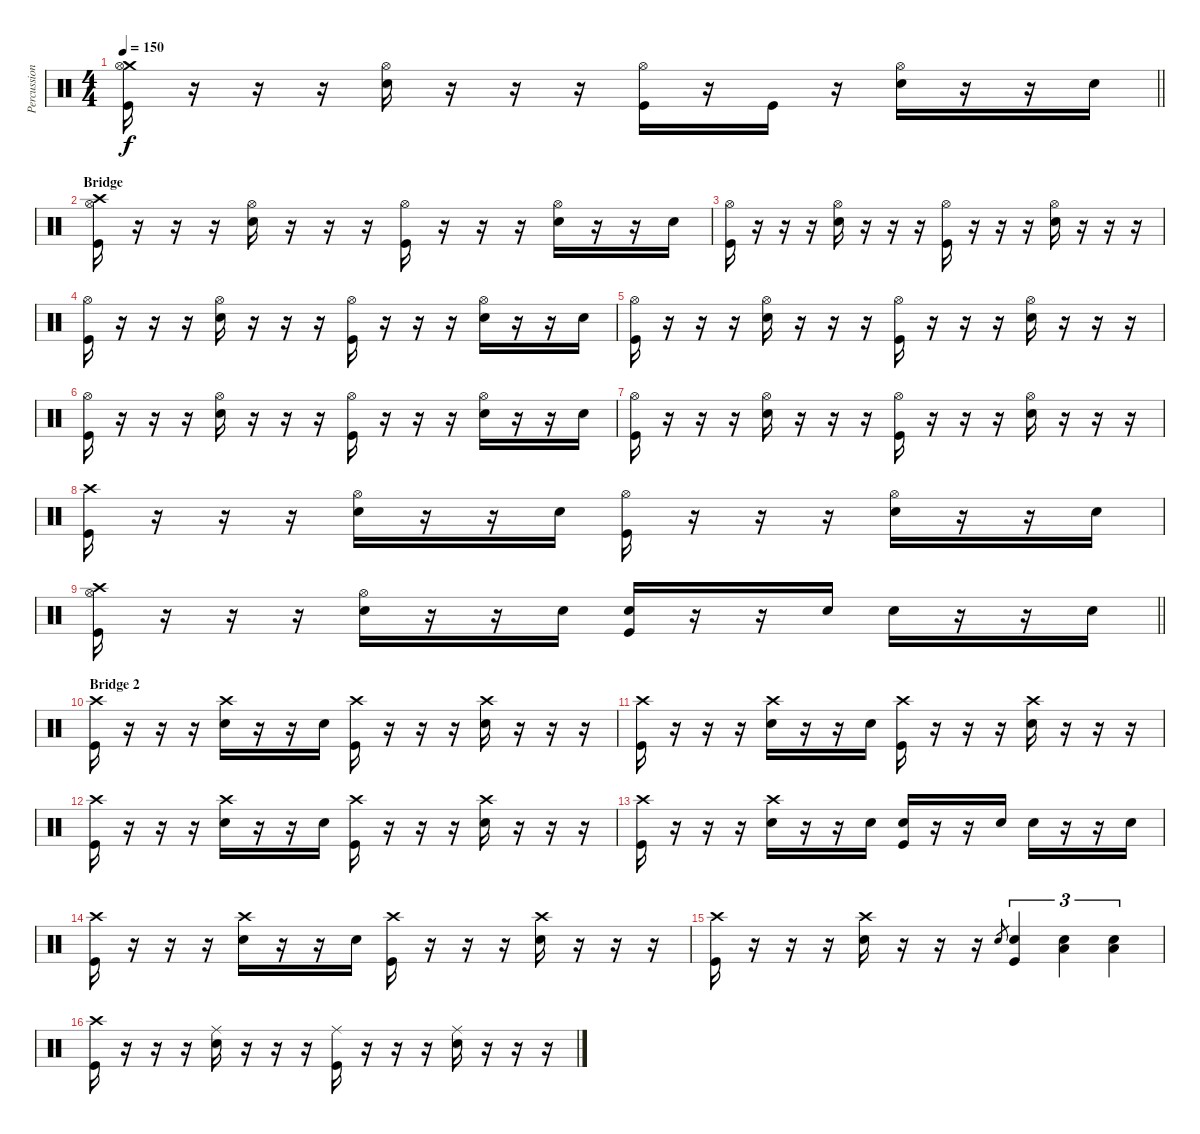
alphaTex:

\track ("Percussion" "Percussion") {instrument percussion}
\staff {score}
\articulation defaults
\ts (4 4)
\tempo 150
\clef neutral
\barLineRight lightlight
\ks c
("Crash medium (hit)" "Hi-Hat (open)" "Kick (hit)").16{dy f} r.16 r.16 r.16 ("Hi-Hat (open)" "Electric Snare (hit)").16 r.16 r.16 r.16 ("Hi-Hat (open)" "Kick (hit)").16 r.16 "Kick (hit)".16 r.16 ("Hi-Hat (open)" "Electric Snare (hit)").16 r.16 r.16 "Electric Snare (hit)".16 |
\section ("" "Bridge")
("Crash high (hit)" "Hi-Hat (open)" "Kick (hit)").16 r.16 r.16 r.16 ("Hi-Hat (open)" "Electric Snare (hit)").16 r.16 r.16 r.16 ("Hi-Hat (open)" "Kick (hit)").16 r.16 r.16 r.16 ("Hi-Hat (open)" "Electric Snare (hit)").16 r.16 r.16 "Electric Snare (hit)".16 |
("Hi-Hat (open)" "Kick (hit)").16 r.16 r.16 r.16 ("Hi-Hat (open)" "Electric Snare (hit)").16 r.16 r.16 r.16 ("Hi-Hat (open)" "Kick (hit)").16 r.16 r.16 r.16 ("Hi-Hat (open)" "Electric Snare (hit)").16 r.16 r.16 r.16 |
("Hi-Hat (open)" "Kick (hit)").16 r.16 r.16 r.16 ("Hi-Hat (open)" "Electric Snare (hit)").16 r.16 r.16 r.16 ("Hi-Hat (open)" "Kick (hit)").16 r.16 r.16 r.16 ("Hi-Hat (open)" "Electric Snare (hit)").16 r.16 r.16 "Electric Snare (hit)".16 |
("Hi-Hat (open)" "Kick (hit)").16 r.16 r.16 r.16 ("Hi-Hat (open)" "Electric Snare (hit)").16 r.16 r.16 r.16 ("Hi-Hat (open)" "Kick (hit)").16 r.16 r.16 r.16 ("Hi-Hat (open)" "Electric Snare (hit)").16 r.16 r.16 r.16 |
("Hi-Hat (open)" "Kick (hit)").16 r.16 r.16 r.16 ("Hi-Hat (open)" "Electric Snare (hit)").16 r.16 r.16 r.16 ("Hi-Hat (open)" "Kick (hit)").16 r.16 r.16 r.16 ("Hi-Hat (open)" "Electric Snare (hit)").16 r.16 r.16 "Electric Snare (hit)".16 |
("Hi-Hat (open)" "Kick (hit)").16 r.16 r.16 r.16 ("Hi-Hat (open)" "Electric Snare (hit)").16 r.16 r.16 r.16 ("Hi-Hat (open)" "Kick (hit)").16 r.16 r.16 r.16 ("Hi-Hat (open)" "Electric Snare (hit)").16 r.16 r.16 r.16 |
("Crash high (hit)" "Kick (hit)").16 r.16 r.16 r.16 ("Hi-Hat (open)" "Electric Snare (hit)").16 r.16 r.16 "Electric Snare (hit)".16 ("Hi-Hat (open)" "Kick (hit)").16 r.16 r.16 r.16 ("Hi-Hat (open)" "Electric Snare (hit)").16 r.16 r.16 "Electric Snare (hit)".16 |
\barLineRight lightlight
("Crash high (hit)" "Hi-Hat (open)" "Kick (hit)").16 r.16 r.16 r.16 ("Hi-Hat (open)" "Electric Snare (hit)").16 r.16 r.16 "Electric Snare (hit)".16 ("Electric Snare (hit)" "Kick (hit)").16 r.16 r.16 "Electric Snare (hit)".16 "Electric Snare (hit)".16 r.16 r.16 "Electric Snare (hit)".16 |
\section ("" "Bridge 2")
("Crash high (hit)" "Kick (hit)").16 r.16 r.16 r.16 ("Crash high (hit)" "Electric Snare (hit)").16 r.16 r.16 "Electric Snare (hit)".16 ("Crash high (hit)" "Kick (hit)").16 r.16 r.16 r.16 ("Crash high (hit)" "Electric Snare (hit)").16 r.16 r.16 r.16 |
("Crash high (hit)" "Kick (hit)").16 r.16 r.16 r.16 ("Crash high (hit)" "Electric Snare (hit)").16 r.16 r.16 "Electric Snare (hit)".16 ("Crash high (hit)" "Kick (hit)").16 r.16 r.16 r.16 ("Crash high (hit)" "Electric Snare (hit)").16 r.16 r.16 r.16 |
("Crash high (hit)" "Kick (hit)").16 r.16 r.16 r.16 ("Crash high (hit)" "Electric Snare (hit)").16 r.16 r.16 "Electric Snare (hit)".16 ("Crash high (hit)" "Kick (hit)").16 r.16 r.16 r.16 ("Crash high (hit)" "Electric Snare (hit)").16 r.16 r.16 r.16 |
("Crash high (hit)" "Kick (hit)").16 r.16 r.16 r.16 ("Crash high (hit)" "Electric Snare (hit)").16 r.16 r.16 "Electric Snare (hit)".16 ("Electric Snare (hit)" "Kick (hit)").16 r.16 r.16 "Electric Snare (hit)".16 "Electric Snare (hit)".16 r.16 r.16 "Electric Snare (hit)".16 |
("Crash high (hit)" "Kick (hit)").16 r.16 r.16 r.16 ("Crash high (hit)" "Electric Snare (hit)").16 r.16 r.16 "Electric Snare (hit)".16 ("Crash high (hit)" "Kick (hit)").16 r.16 r.16 r.16 ("Crash high (hit)" "Electric Snare (hit)").16 r.16 r.16 r.16 |
("Crash high (hit)" "Kick (hit)").16 r.16 r.16 r.16 ("Crash high (hit)" "Electric Snare (hit)").16 r.16 r.16 r.16 "Electric Snare (hit)".8{gr} ("Electric Snare (hit)" "Kick (hit)").4{tu (3 2)} ("Electric Snare (hit)" "Low Tom (hit)").4{tu (3 2)} ("Electric Snare (hit)" "Low Floor Tom (hit)").4{tu (3 2)} |
("Crash high (hit)" "Kick (hit)").16 r.16 r.16 r.16 ("Ride (middle)" "Electric Snare (hit)").16 r.16 r.16 r.16 ("Ride (middle)" "Kick (hit)").16 r.16 r.16 r.16 ("Ride (middle)" "Electric Snare (hit)").16 r.16 r.16 r.16
